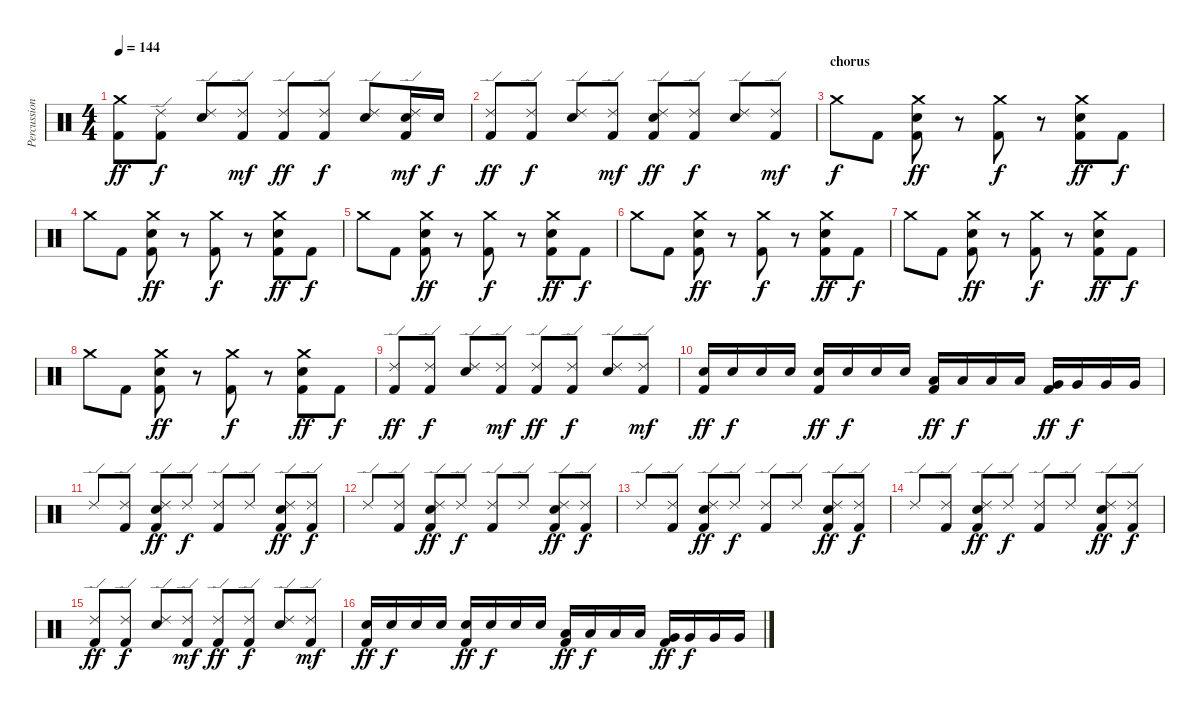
\track ("Percussion" "Percussion") {instrument percussion}
\staff {score}
\articulation defaults
\ts (4 4)
\tempo 144
\clef neutral
\ks c
("Crash medium (hit)" "Kick (hit) 2").8{dy ff} ("Ride (edge) 2" "Kick (hit) 2").8{dy f} ("Ride (edge) 2" "Snare (hit) 2").8 ("Ride (edge) 2" "Kick (hit) 2").8{dy mf} ("Ride (edge) 2" "Kick (hit) 2").8{dy ff} ("Ride (edge) 2" "Kick (hit) 2").8{dy f} ("Ride (edge) 2" "Snare (hit) 2").8 ("Ride (edge) 2" "Snare (hit) 2" "Kick (hit) 2").16{dy mf} "Snare (hit) 2".16{dy f} |
("Ride (edge) 2" "Kick (hit) 2").8{dy ff} ("Ride (edge) 2" "Kick (hit) 2").8{dy f} ("Ride (edge) 2" "Snare (hit) 2").8 ("Ride (edge) 2" "Kick (hit) 2").8{dy mf} ("Ride (edge) 2" "Snare (hit) 2" "Kick (hit) 2").8{dy ff} ("Ride (edge) 2" "Kick (hit) 2").8{dy f} ("Ride (edge) 2" "Snare (hit) 2").8 ("Ride (edge) 2" "Kick (hit) 2").8{dy mf} |
\section ("" "chorus")
"Crash medium (hit)".8{dy f} "Kick (hit) 2".8 ("Crash medium (hit)" "Snare (hit) 2" "Kick (hit) 2").8{dy ff} r.8 ("Crash medium (hit)" "Kick (hit) 2").8{dy f} r.8 ("Crash medium (hit)" "Snare (hit) 2" "Kick (hit) 2").8{dy ff} "Kick (hit) 2".8{dy f} |
"Crash medium (hit)".8 "Kick (hit) 2".8 ("Crash medium (hit)" "Snare (hit) 2" "Kick (hit) 2").8{dy ff} r.8 ("Crash medium (hit)" "Kick (hit) 2").8{dy f} r.8 ("Crash medium (hit)" "Snare (hit) 2" "Kick (hit) 2").8{dy ff} "Kick (hit) 2".8{dy f} |
"Crash medium (hit)".8 "Kick (hit) 2".8 ("Crash medium (hit)" "Snare (hit) 2" "Kick (hit) 2").8{dy ff} r.8 ("Crash medium (hit)" "Kick (hit) 2").8{dy f} r.8 ("Crash medium (hit)" "Snare (hit) 2" "Kick (hit) 2").8{dy ff} "Kick (hit) 2".8{dy f} |
"Crash medium (hit)".8 "Kick (hit) 2".8 ("Crash medium (hit)" "Snare (hit) 2" "Kick (hit) 2").8{dy ff} r.8 ("Crash medium (hit)" "Kick (hit) 2").8{dy f} r.8 ("Crash medium (hit)" "Snare (hit) 2" "Kick (hit) 2").8{dy ff} "Kick (hit) 2".8{dy f} |
"Crash medium (hit)".8 "Kick (hit) 2".8 ("Crash medium (hit)" "Snare (hit) 2" "Kick (hit) 2").8{dy ff} r.8 ("Crash medium (hit)" "Kick (hit) 2").8{dy f} r.8 ("Crash medium (hit)" "Snare (hit) 2" "Kick (hit) 2").8{dy ff} "Kick (hit) 2".8{dy f} |
"Crash medium (hit)".8 "Kick (hit) 2".8 ("Crash medium (hit)" "Snare (hit) 2" "Kick (hit) 2").8{dy ff} r.8 ("Crash medium (hit)" "Kick (hit) 2").8{dy f} r.8 ("Crash medium (hit)" "Snare (hit) 2" "Kick (hit) 2").8{dy ff} "Kick (hit) 2".8{dy f} |
("Ride (edge) 2" "Kick (hit) 2").8{dy ff} ("Ride (edge) 2" "Kick (hit) 2").8{dy f} ("Ride (edge) 2" "Snare (hit) 2").8 ("Ride (edge) 2" "Kick (hit) 2").8{dy mf} ("Ride (edge) 2" "Kick (hit) 2").8{dy ff} ("Ride (edge) 2" "Kick (hit) 2").8{dy f} ("Ride (edge) 2" "Snare (hit) 2").8 ("Ride (edge) 2" "Kick (hit) 2").8{dy mf} |
("Snare (hit) 2" "Kick (hit) 2").16{dy ff} "Snare (hit) 2".16{dy f} "Snare (hit) 2".16 "Snare (hit) 2".16 ("Snare (hit) 2" "Kick (hit) 2").16{dy ff} "Snare (hit) 2".16{dy f} "Snare (hit) 2".16 "Snare (hit) 2".16 ("Low Tom (hit)" "Kick (hit) 2").16{dy ff} "Low Tom (hit)".16{dy f} "Low Tom (hit)".16 "Low Tom (hit)".16 ("Very Low Tom (hit)" "Kick (hit) 2").16{dy ff} "Very Low Tom (hit)".16{dy f} "Very Low Tom (hit)".16 "Very Low Tom (hit)".16 |
"Ride (edge) 2".8 ("Ride (edge) 2" "Kick (hit) 2").8 ("Ride (edge) 2" "Snare (hit) 2" "Kick (hit) 2").8{dy ff} "Ride (edge) 2".8{dy f} ("Ride (edge) 2" "Kick (hit) 2").8 "Ride (edge) 2".8 ("Ride (edge) 2" "Snare (hit) 2" "Kick (hit) 2").8{dy ff} ("Ride (edge) 2" "Kick (hit) 2").8{dy f} |
"Ride (edge) 2".8 ("Ride (edge) 2" "Kick (hit) 2").8 ("Ride (edge) 2" "Snare (hit) 2" "Kick (hit) 2").8{dy ff} "Ride (edge) 2".8{dy f} ("Ride (edge) 2" "Kick (hit) 2").8 "Ride (edge) 2".8 ("Ride (edge) 2" "Snare (hit) 2" "Kick (hit) 2").8{dy ff} ("Ride (edge) 2" "Kick (hit) 2").8{dy f} |
"Ride (edge) 2".8 ("Ride (edge) 2" "Kick (hit) 2").8 ("Ride (edge) 2" "Snare (hit) 2" "Kick (hit) 2").8{dy ff} "Ride (edge) 2".8{dy f} ("Ride (edge) 2" "Kick (hit) 2").8 "Ride (edge) 2".8 ("Ride (edge) 2" "Snare (hit) 2" "Kick (hit) 2").8{dy ff} ("Ride (edge) 2" "Kick (hit) 2").8{dy f} |
"Ride (edge) 2".8 ("Ride (edge) 2" "Kick (hit) 2").8 ("Ride (edge) 2" "Snare (hit) 2" "Kick (hit) 2").8{dy ff} "Ride (edge) 2".8{dy f} ("Ride (edge) 2" "Kick (hit) 2").8 "Ride (edge) 2".8 ("Ride (edge) 2" "Snare (hit) 2" "Kick (hit) 2").8{dy ff} ("Ride (edge) 2" "Kick (hit) 2").8{dy f} |
("Ride (edge) 2" "Kick (hit) 2").8{dy ff} ("Ride (edge) 2" "Kick (hit) 2").8{dy f} ("Ride (edge) 2" "Snare (hit) 2").8 ("Ride (edge) 2" "Kick (hit) 2").8{dy mf} ("Ride (edge) 2" "Kick (hit) 2").8{dy ff} ("Ride (edge) 2" "Kick (hit) 2").8{dy f} ("Ride (edge) 2" "Snare (hit) 2").8 ("Ride (edge) 2" "Kick (hit) 2").8{dy mf} |
("Snare (hit) 2" "Kick (hit) 2").16{dy ff} "Snare (hit) 2".16{dy f} "Snare (hit) 2".16 "Snare (hit) 2".16 ("Snare (hit) 2" "Kick (hit) 2").16{dy ff} "Snare (hit) 2".16{dy f} "Snare (hit) 2".16 "Snare (hit) 2".16 ("Low Tom (hit)" "Kick (hit) 2").16{dy ff} "Low Tom (hit)".16{dy f} "Low Tom (hit)".16 "Low Tom (hit)".16 ("Very Low Tom (hit)" "Kick (hit) 2").16{dy ff} "Very Low Tom (hit)".16{dy f} "Very Low Tom (hit)".16 "Very Low Tom (hit)".16
